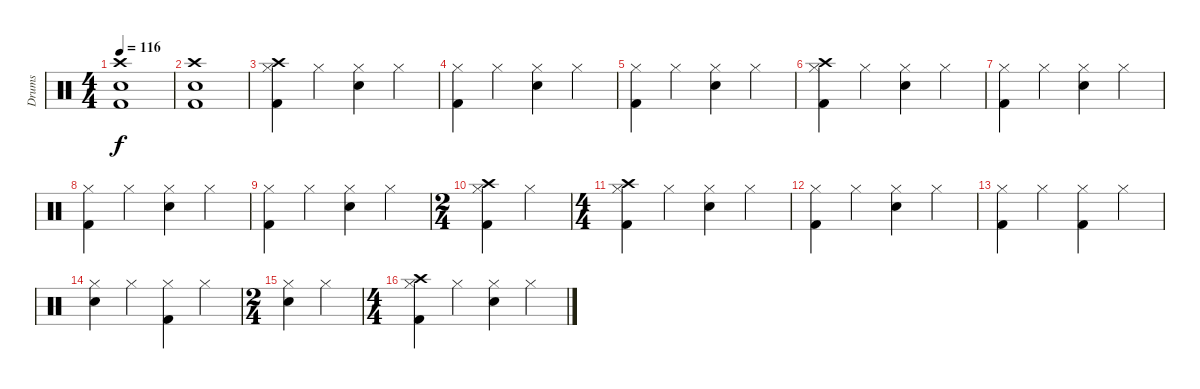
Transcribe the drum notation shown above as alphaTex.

\track ("Drums" "Drums") {instrument percussion}
\staff {score}
\articulation defaults
\ts (4 4)
\tempo 116
\clef neutral
\ks c
("Crash high (hit)" "Snare (hit) 2" "Kick (hit) 2").1{dy f} |
("Crash high (hit)" "Snare (hit) 2" "Kick (hit) 2").1 |
("Crash high (hit)" "Hi-Hat (closed)" "Kick (hit) 2").4 "Hi-Hat (closed)".4 ("Hi-Hat (closed)" "Snare (hit) 2").4 "Hi-Hat (closed)".4 |
("Hi-Hat (closed)" "Kick (hit) 2").4 "Hi-Hat (closed)".4 ("Hi-Hat (closed)" "Snare (hit) 2").4 "Hi-Hat (closed)".4 |
("Hi-Hat (closed)" "Kick (hit) 2").4 "Hi-Hat (closed)".4 ("Hi-Hat (closed)" "Snare (hit) 2").4 "Hi-Hat (closed)".4 |
("Crash high (hit)" "Hi-Hat (closed)" "Kick (hit) 2").4 "Hi-Hat (closed)".4 ("Hi-Hat (closed)" "Snare (hit) 2").4 "Hi-Hat (closed)".4 |
("Hi-Hat (closed)" "Kick (hit) 2").4 "Hi-Hat (closed)".4 ("Hi-Hat (closed)" "Snare (hit) 2").4 "Hi-Hat (closed)".4 |
("Hi-Hat (closed)" "Kick (hit) 2").4 "Hi-Hat (closed)".4 ("Hi-Hat (closed)" "Snare (hit) 2").4 "Hi-Hat (closed)".4 |
("Hi-Hat (closed)" "Kick (hit) 2").4 "Hi-Hat (closed)".4 ("Hi-Hat (closed)" "Snare (hit) 2").4 "Hi-Hat (closed)".4 |
\ts (2 4)
("Crash high (hit)" "Hi-Hat (closed)" "Kick (hit) 2").4 "Hi-Hat (closed)".4 |
\ts (4 4)
("Crash high (hit)" "Hi-Hat (closed)" "Kick (hit) 2").4 "Hi-Hat (closed)".4 ("Hi-Hat (closed)" "Snare (hit) 2").4 "Hi-Hat (closed)".4 |
("Hi-Hat (closed)" "Kick (hit) 2").4 "Hi-Hat (closed)".4 ("Hi-Hat (closed)" "Snare (hit) 2").4 "Hi-Hat (closed)".4 |
("Hi-Hat (closed)" "Kick (hit) 2").4 "Hi-Hat (closed)".4 ("Hi-Hat (closed)" "Kick (hit) 2").4 "Hi-Hat (closed)".4 |
("Hi-Hat (closed)" "Snare (hit) 2").4 "Hi-Hat (closed)".4 ("Hi-Hat (closed)" "Kick (hit) 2").4 "Hi-Hat (closed)".4 |
\ts (2 4)
("Hi-Hat (closed)" "Snare (hit) 2").4 "Hi-Hat (closed)".4 |
\ts (4 4)
("Crash high (hit)" "Hi-Hat (closed)" "Kick (hit) 2").4 "Hi-Hat (closed)".4 ("Hi-Hat (closed)" "Snare (hit) 2").4 "Hi-Hat (closed)".4
